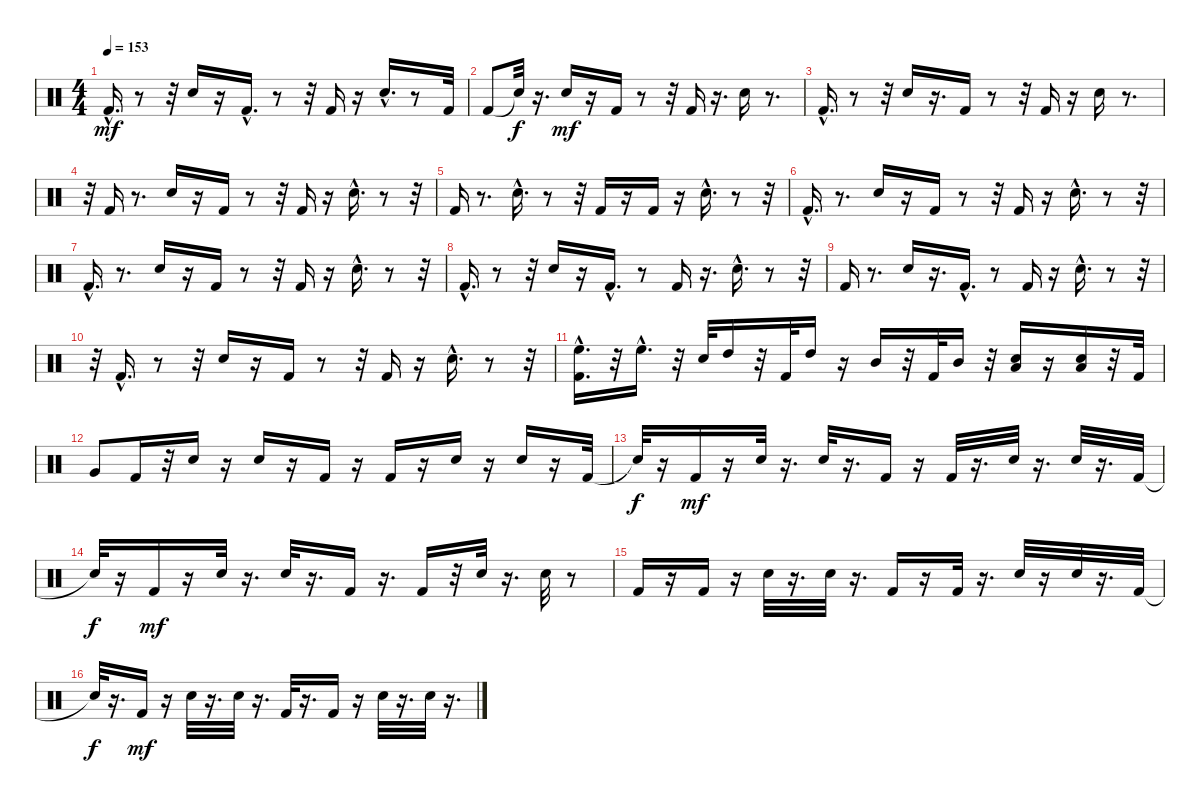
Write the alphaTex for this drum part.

\track "" {instrument percussion}
\staff {score}
\articulation defaults
\ts (4 4)
\tempo 153
\clef neutral
\ks c "Kick (hit) 2"{hac}.16{d dy mf}
r.8 r.32 "Snare (hit) 2".16 r.16 "Kick (hit) 2"{hac}.16{d} r.8 r.32 "Kick (hit) 2".16 r.16 "Snare (hit) 2"{hac}.16{d} r.8 "Kick (hit) 2".32 |
"Kick (hit) 2".8 "Snare (hit)"{t}.32{dy f} r.16{d} "Snare (hit) 2".16{dy mf} r.16 "Kick (hit) 2".16 r.8 r.32 "Kick (hit) 2".16 r.16{d} "Snare (hit) 2".16 r.8{d} |
"Kick (hit) 2"{hac}.16{d} r.8 r.32 "Snare (hit) 2".16 r.16{d} "Kick (hit) 2".16 r.8 r.32 "Kick (hit) 2".16 r.16 "Snare (hit) 2".16 r.8{d} |
r.32 "Kick (hit) 2".16 r.8{d} "Snare (hit) 2".16 r.16 "Kick (hit) 2".16 r.8 r.32 "Kick (hit) 2".16 r.16 "Snare (hit) 2"{hac}.16{d} r.8 r.32 |
"Kick (hit) 2".16 r.8{d} "Snare (hit) 2"{hac}.16{d} r.8 r.32 "Kick (hit) 2".16 r.16 "Kick (hit) 2".16 r.16 "Snare (hit) 2"{hac}.16{d} r.8 r.32 |
"Kick (hit) 2"{hac}.16{d} r.8{d} "Snare (hit) 2".16 r.16 "Kick (hit) 2".16 r.8 r.32 "Kick (hit) 2".16 r.16 "Snare (hit) 2"{hac}.16{d} r.8 r.32 |
"Kick (hit) 2"{hac}.16{d} r.8{d} "Snare (hit) 2".16 r.16 "Kick (hit) 2".16 r.8 r.32 "Kick (hit) 2".16 r.16 "Snare (hit) 2"{hac}.16{d} r.8 r.32 |
"Kick (hit) 2"{hac}.16{d} r.8 r.32 "Snare (hit) 2".16 r.16 "Kick (hit) 2"{hac}.16{d} r.8 "Kick (hit) 2".16 r.16{d} "Snare (hit) 2"{hac}.16{d} r.8 r.32 |
"Kick (hit) 2".16 r.8{d} "Snare (hit) 2".16 r.16{d} "Kick (hit) 2"{hac}.16{d} r.8 "Kick (hit) 2".16 r.16 "Snare (hit) 2"{hac}.16{d} r.8 r.32 |
r.32 "Kick (hit) 2"{hac}.16{d} r.8 r.32 "Snare (hit) 2".16 r.16 "Kick (hit) 2".16 r.8 r.32 "Kick (hit) 2".16 r.16 "Snare (hit) 2"{hac}.16{d} r.8 r.32 |
("Kick (hit) 2"{hac} "High Floor Tom (hit)").16{d} r.32 "High Floor Tom (hit)"{hac}.16{d} r.32 "Snare (hit) 2".32 "High Tom (hit)".16 r.32 "Kick (hit) 2".32 "High Tom (hit)".16 r.16 "Mid Tom (hit)".16 r.32 "Kick (hit) 2".32 "Mid Tom (hit)".16 r.32 ("Low Tom (hit)" "Snare (hit) 2").16 r.16 ("Snare (hit) 2" "Low Tom (hit)").16 r.32 "Kick (hit) 2".32 |
"Very Low Tom (hit)".8 "Kick (hit) 2".16 r.32 "Snare (hit) 2".16 r.16 "Snare (hit) 2".16 r.16 "Kick (hit) 2".16 r.16 "Kick (hit) 2".16 r.16 "Snare (hit) 2".16 r.16 "Snare (hit) 2".16 r.16 "Kick (hit) 2".32 |
"Snare (hit)"{t}.32{dy f} r.16 "Kick (hit) 2".16{dy mf} r.16 "Snare (hit) 2".32 r.16{d} "Snare (hit) 2".32 r.16{d} "Kick (hit) 2".16 r.16 "Kick (hit) 2".32 r.16{d} "Snare (hit) 2".32 r.16{d} "Snare (hit) 2".32 r.16{d} "Kick (hit) 2".32 |
"Snare (hit)"{t}.32{dy f} r.16 "Kick (hit) 2".16{dy mf} r.16 "Snare (hit) 2".32 r.16{d} "Snare (hit) 2".32 r.16{d} "Kick (hit) 2".16 r.16{d} "Kick (hit) 2".16 r.32 "Snare (hit) 2".32 r.16{d} "Snare (hit) 2".32 r.8 |
"Kick (hit) 2".16 r.16 "Kick (hit) 2".16 r.16 "Snare (hit) 2".32 r.16{d} "Snare (hit) 2".32 r.16{d} "Kick (hit) 2".16 r.16 "Kick (hit) 2".32 r.16{d} "Snare (hit) 2".32 r.16 "Snare (hit) 2".32 r.16{d} "Kick (hit) 2".32 |
"Snare (hit)"{t}.32{dy f} r.16{d} "Kick (hit) 2".16{dy mf} r.16 "Snare (hit) 2".32 r.16{d} "Snare (hit) 2".32 r.16{d} "Kick (hit) 2".32 r.16{d} "Kick (hit) 2".16 r.16 "Snare (hit) 2".32 r.16{d} "Snare (hit) 2".32 r.16{d}
